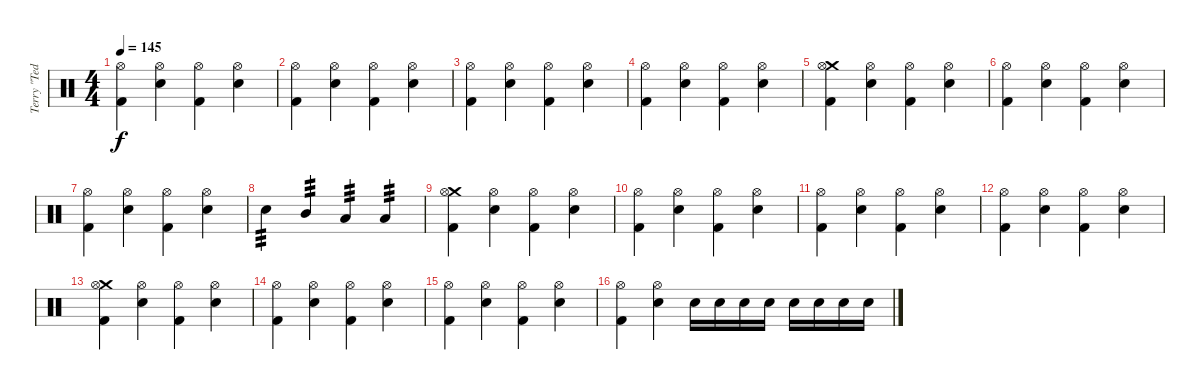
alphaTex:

\track ("Terry \"Ted\" Bozzio" "Terry \"Ted") {instrument percussion}
\staff {score}
\articulation defaults
\ts (4 4)
\tempo 145
\clef neutral
\ks c
("Hi-Hat (open)" "Kick (hit) 2").4{dy f} ("Hi-Hat (open)" "Electric Snare (hit)").4{beam merge} ("Hi-Hat (open)" "Kick (hit) 2").4 ("Hi-Hat (open)" "Electric Snare (hit)").4 |
("Hi-Hat (open)" "Kick (hit) 2").4{beam merge} ("Hi-Hat (open)" "Electric Snare (hit)").4 ("Hi-Hat (open)" "Kick (hit) 2").4 ("Hi-Hat (open)" "Electric Snare (hit)").4 |
("Hi-Hat (open)" "Kick (hit) 2").4 ("Hi-Hat (open)" "Electric Snare (hit)").4{beam merge} ("Hi-Hat (open)" "Kick (hit) 2").4 ("Hi-Hat (open)" "Electric Snare (hit)").4 |
("Hi-Hat (open)" "Kick (hit) 2").4{beam merge} ("Hi-Hat (open)" "Electric Snare (hit)").4 ("Hi-Hat (open)" "Kick (hit) 2").4 ("Hi-Hat (open)" "Electric Snare (hit)").4 |
("Crash medium (hit)" "Hi-Hat (open)" "Kick (hit) 2").4 ("Hi-Hat (open)" "Electric Snare (hit)").4{beam merge} ("Hi-Hat (open)" "Kick (hit) 2").4 ("Hi-Hat (open)" "Electric Snare (hit)").4 |
("Hi-Hat (open)" "Kick (hit) 2").4{beam merge} ("Hi-Hat (open)" "Electric Snare (hit)").4 ("Hi-Hat (open)" "Kick (hit) 2").4 ("Hi-Hat (open)" "Electric Snare (hit)").4 |
("Hi-Hat (open)" "Kick (hit) 2").4 ("Hi-Hat (open)" "Electric Snare (hit)").4{beam merge} ("Hi-Hat (open)" "Kick (hit) 2").4 ("Hi-Hat (open)" "Electric Snare (hit)").4 |
"Electric Snare (hit)".4{tp 3} "Mid Tom (hit)".4{tp 3 beam merge} "Low Tom (hit)".4{tp 3} "Low Floor Tom (hit)".4{tp 3} |
("Crash medium (hit)" "Hi-Hat (open)" "Kick (hit) 2").4 ("Hi-Hat (open)" "Electric Snare (hit)").4{beam merge} ("Hi-Hat (open)" "Kick (hit) 2").4 ("Hi-Hat (open)" "Electric Snare (hit)").4 |
("Hi-Hat (open)" "Kick (hit) 2").4{beam merge} ("Hi-Hat (open)" "Electric Snare (hit)").4 ("Hi-Hat (open)" "Kick (hit) 2").4 ("Hi-Hat (open)" "Electric Snare (hit)").4 |
("Hi-Hat (open)" "Kick (hit) 2").4 ("Hi-Hat (open)" "Electric Snare (hit)").4{beam merge} ("Hi-Hat (open)" "Kick (hit) 2").4 ("Hi-Hat (open)" "Electric Snare (hit)").4 |
("Hi-Hat (open)" "Kick (hit) 2").4{beam merge} ("Hi-Hat (open)" "Electric Snare (hit)").4 ("Hi-Hat (open)" "Kick (hit) 2").4 ("Hi-Hat (open)" "Electric Snare (hit)").4 |
("Crash medium (hit)" "Hi-Hat (open)" "Kick (hit) 2").4 ("Hi-Hat (open)" "Electric Snare (hit)").4{beam merge} ("Hi-Hat (open)" "Kick (hit) 2").4 ("Hi-Hat (open)" "Electric Snare (hit)").4 |
("Hi-Hat (open)" "Kick (hit) 2").4{beam merge} ("Hi-Hat (open)" "Electric Snare (hit)").4 ("Hi-Hat (open)" "Kick (hit) 2").4 ("Hi-Hat (open)" "Electric Snare (hit)").4 |
("Hi-Hat (open)" "Kick (hit) 2").4 ("Hi-Hat (open)" "Electric Snare (hit)").4{beam merge} ("Hi-Hat (open)" "Kick (hit) 2").4 ("Hi-Hat (open)" "Electric Snare (hit)").4 |
("Hi-Hat (open)" "Kick (hit) 2").4{beam merge} ("Hi-Hat (open)" "Electric Snare (hit)").4 "Electric Snare (hit)".16 "Electric Snare (hit)".16{beam merge} "Electric Snare (hit)".16 "Electric Snare (hit)".16 "Electric Snare (hit)".16 "Electric Snare (hit)".16 "Electric Snare (hit)".16 "Electric Snare (hit)".16
